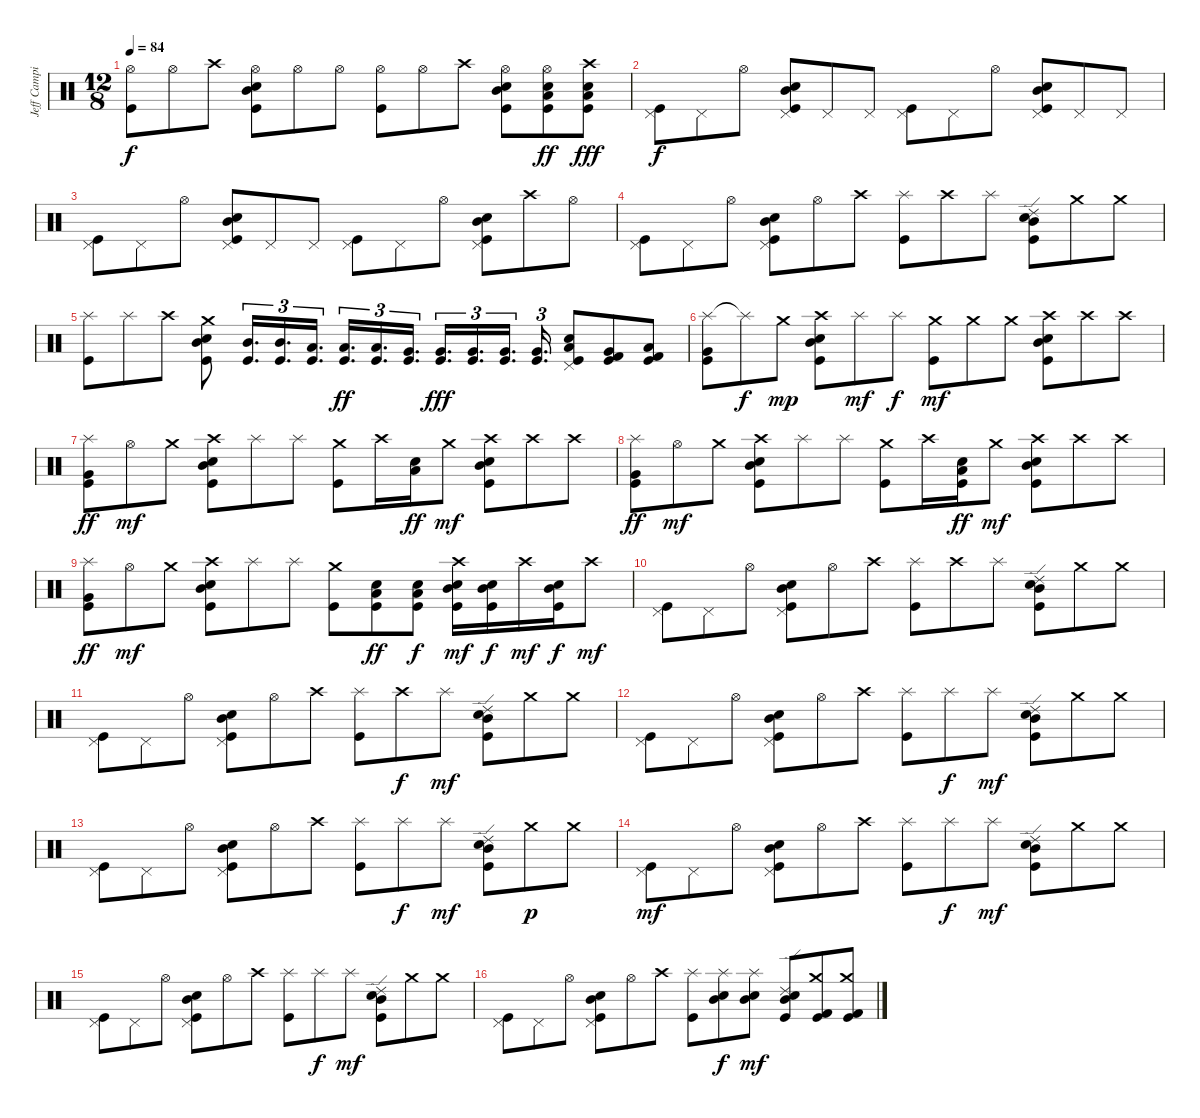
\track ("Jeff Campitelli" "Jeff Campi") {instrument percussion}
\staff {score}
\articulation defaults
\ts (12 8)
\tempo 84
\clef neutral
\ks c
("Hi-Hat (open)" "Kick (hit)").8{dy f} "Hi-Hat (open)".8 "Crash high (hit)".8 ("Hi-Hat (open)" "Snare (hit) 2" "Mid Tom (hit)" "Kick (hit)").8 "Hi-Hat (open)".8 "Hi-Hat (open)".8 ("Hi-Hat (open)" "Kick (hit)").8 "Hi-Hat (open)".8 "Crash high (hit)".8 ("Hi-Hat (open)" "Snare (hit) 2" "Mid Tom (hit)" "Kick (hit)").8 ("Hi-Hat (open)" "Snare (hit) 2" "Low Tom (hit)" "Kick (hit)").8{dy ff} ("Crash high (hit)" "Snare (hit) 2" "Low Floor Tom (hit)" "Kick (hit)").8{dy fff} |
("Pedal Hi-Hat (hit)" "Kick (hit)").8{dy f} "Pedal Hi-Hat (hit)".8 "Hi-Hat (open)".8 ("Pedal Hi-Hat (hit)" "Snare (hit) 2" "Mid Tom (hit)" "Kick (hit)").8 "Pedal Hi-Hat (hit)".8 "Pedal Hi-Hat (hit)".8 ("Pedal Hi-Hat (hit)" "Kick (hit)").8 "Pedal Hi-Hat (hit)".8 "Hi-Hat (open)".8 ("Pedal Hi-Hat (hit)" "Snare (hit) 2" "Mid Tom (hit)" "Kick (hit)").8 "Pedal Hi-Hat (hit)".8 "Pedal Hi-Hat (hit)".8 |
("Pedal Hi-Hat (hit)" "Kick (hit)").8 "Pedal Hi-Hat (hit)".8 "Hi-Hat (open)".8 ("Pedal Hi-Hat (hit)" "Snare (hit) 2" "Mid Tom (hit)" "Kick (hit)").8 "Pedal Hi-Hat (hit)".8 "Pedal Hi-Hat (hit)".8 ("Pedal Hi-Hat (hit)" "Kick (hit)").8 "Pedal Hi-Hat (hit)".8 "Hi-Hat (open)".8 ("Pedal Hi-Hat (hit)" "Snare (hit) 2" "Mid Tom (hit)" "Kick (hit)").8 "Crash high (hit)".8 "Hi-Hat (open)".8 |
("Pedal Hi-Hat (hit)" "Kick (hit)").8{volume 14} "Pedal Hi-Hat (hit)".8 "Hi-Hat (open)".8 ("Pedal Hi-Hat (hit)" "Snare (hit) 2" "Mid Tom (hit)" "Kick (hit)").8 "Hi-Hat (open)".8 "Crash high (hit)".8 ("Splash (hit)" "Kick (hit)").8 "Crash high (hit)".8 "Splash (hit)".8 ("Ride (edge) 2" "Snare (hit) 2" "Mid Tom (hit)" "Kick (hit)").8 "Crash medium (hit)".8 "Crash medium (hit)".8 |
("Splash (hit)" "Kick (hit)").8 "Splash (hit)".8 "Crash high (hit)".8 ("Crash medium (hit)" "Snare (hit) 2" "Mid Tom (hit)" "Kick (hit)").8 ("Mid Tom (hit)" "Kick (hit)").16{d tu (3 2)} ("Mid Tom (hit)" "Kick (hit)").16{d tu (3 2)} ("Low Tom (hit)" "Kick (hit)").16{d tu (3 2)} ("Low Tom (hit)" "Kick (hit)").16{d tu (3 2) dy ff} ("Low Tom (hit)" "Kick (hit)").16{d tu (3 2)} ("Very Low Tom (hit)" "Kick (hit)").16{d tu (3 2)} ("Very Low Tom (hit)" "Kick (hit)").16{d tu (3 2) dy fff} ("Very Low Tom (hit)" "Kick (hit)").16{d tu (3 2)} ("Very Low Tom (hit)" "Kick (hit)").16{d tu (3 2)} ("Very Low Tom (hit)" "Kick (hit)").16{d tu (3 2)} ("Pedal Hi-Hat (hit)" "Snare (hit) 2" "Low Tom (hit)" "Kick (hit)").8 ("Very Low Tom (hit)" "Kick (hit) 2" "Kick (hit)").8 ("Low Floor Tom (hit)" "Kick (hit) 2" "Kick (hit)").8 |
("Splash (hit)" "Very Low Tom (hit)" "Kick (hit)").8 "Splash (hit)"{t}.8{dy f} "Crash medium (hit)".8{dy mp} ("Crash high (hit)" "Snare (hit) 2" "Mid Tom (hit)" "Kick (hit)").8 "Splash (hit)".8{dy mf} "Splash (hit)".8{dy f} ("Crash medium (hit)" "Kick (hit)").8{dy mf} "Crash medium (hit)".8 "Crash medium (hit)".8 ("Crash high (hit)" "Snare (hit) 2" "Mid Tom (hit)" "Kick (hit)").8 "Crash high (hit)".8 "Crash high (hit)".8 |
("Splash (hit)" "Very Low Tom (hit)" "Kick (hit)").8{dy ff} "Hi-Hat (open)".8{dy mf} "Crash medium (hit)".8 ("Crash high (hit)" "Snare (hit) 2" "Mid Tom (hit)" "Kick (hit)").8 "Splash (hit)".8 "Splash (hit)".8 ("Crash medium (hit)" "Kick (hit)").8 "Crash high (hit)".16 ("Snare (hit) 2" "Low Tom (hit)").16{dy ff} "Crash medium (hit)".8{dy mf} ("Crash high (hit)" "Snare (hit) 2" "Mid Tom (hit)" "Kick (hit)").8 "Crash high (hit)".8 "Crash high (hit)".8 |
("Splash (hit)" "Very Low Tom (hit)" "Kick (hit)").8{dy ff} "Hi-Hat (open)".8{dy mf} "Crash medium (hit)".8 ("Crash high (hit)" "Snare (hit) 2" "Mid Tom (hit)" "Kick (hit)").8 "Splash (hit)".8 "Splash (hit)".8 ("Crash medium (hit)" "Kick (hit)").8 "Crash high (hit)".16 ("Snare (hit) 2" "Low Tom (hit)" "Kick (hit)").16{dy ff} "Crash medium (hit)".8{dy mf} ("Crash high (hit)" "Snare (hit) 2" "Mid Tom (hit)" "Kick (hit)").8 "Crash high (hit)".8 "Crash high (hit)".8 |
("Splash (hit)" "Very Low Tom (hit)" "Kick (hit)").8{dy ff} "Hi-Hat (open)".8{dy mf} "Crash medium (hit)".8 ("Crash high (hit)" "Snare (hit) 2" "Mid Tom (hit)" "Kick (hit)").8 "Splash (hit)".8 "Splash (hit)".8 ("Crash medium (hit)" "Kick (hit)").8 ("Snare (hit) 2" "Low Tom (hit)" "Kick (hit)").8{dy ff} ("Snare (hit) 2" "Low Tom (hit)" "Kick (hit)").8{dy f} ("Crash high (hit)" "Snare (hit) 2" "Mid Tom (hit)" "Kick (hit)").16{dy mf} ("Snare (hit) 2" "Mid Tom (hit)" "Kick (hit)").16{dy f} "Crash high (hit)".16{dy mf} ("Snare (hit) 2" "Mid Tom (hit)" "Kick (hit)").16{dy f} "Crash high (hit)".8{dy mf} |
("Pedal Hi-Hat (hit)" "Kick (hit)").8 "Pedal Hi-Hat (hit)".8 "Hi-Hat (open)".8 ("Pedal Hi-Hat (hit)" "Snare (hit) 2" "Mid Tom (hit)" "Kick (hit)").8 "Hi-Hat (open)".8 "Crash high (hit)".8 ("Splash (hit)" "Kick (hit)").8 "Crash high (hit)".8 "Splash (hit)".8 ("Ride (edge) 2" "Snare (hit) 2" "Mid Tom (hit)" "Kick (hit)").8 "Crash medium (hit)".8 "Crash medium (hit)".8 |
("Pedal Hi-Hat (hit)" "Kick (hit)").8 "Pedal Hi-Hat (hit)".8 "Hi-Hat (open)".8 ("Pedal Hi-Hat (hit)" "Snare (hit) 2" "Mid Tom (hit)" "Kick (hit)").8 "Hi-Hat (open)".8 "Crash high (hit)".8 ("Splash (hit)" "Kick (hit)").8 "Crash high (hit)".8{dy f} "Splash (hit)".8{dy mf} ("Ride (edge) 2" "Snare (hit) 2" "Mid Tom (hit)" "Kick (hit)").8 "Crash medium (hit)".8 "Crash medium (hit)".8 |
("Pedal Hi-Hat (hit)" "Kick (hit)").8 "Pedal Hi-Hat (hit)".8 "Hi-Hat (open)".8 ("Pedal Hi-Hat (hit)" "Snare (hit) 2" "Mid Tom (hit)" "Kick (hit)").8 "Hi-Hat (open)".8 "Crash high (hit)".8 ("Splash (hit)" "Kick (hit)").8 "Splash (hit)".8{dy f} "Splash (hit)".8{dy mf} ("Ride (edge) 2" "Snare (hit) 2" "Mid Tom (hit)" "Kick (hit)").8 "Crash medium (hit)".8 "Crash medium (hit)".8 |
("Pedal Hi-Hat (hit)" "Kick (hit)").8 "Pedal Hi-Hat (hit)".8 "Hi-Hat (open)".8 ("Pedal Hi-Hat (hit)" "Snare (hit) 2" "Mid Tom (hit)" "Kick (hit)").8 "Hi-Hat (open)".8 "Crash high (hit)".8 ("Splash (hit)" "Kick (hit)").8 "Splash (hit)".8{dy f} "Splash (hit)".8{dy mf} ("Ride (edge) 2" "Snare (hit) 2" "Mid Tom (hit)" "Kick (hit)").8 "Crash medium (hit)".8{dy p} "Crash medium (hit)".8 |
("Pedal Hi-Hat (hit)" "Kick (hit)").8{dy mf} "Pedal Hi-Hat (hit)".8 "Hi-Hat (open)".8 ("Pedal Hi-Hat (hit)" "Snare (hit) 2" "Mid Tom (hit)" "Kick (hit)").8 "Hi-Hat (open)".8 "Crash high (hit)".8 ("Splash (hit)" "Kick (hit)").8 "Splash (hit)".8{dy f} "Splash (hit)".8{dy mf} ("Ride (edge) 2" "Snare (hit) 2" "Mid Tom (hit)" "Kick (hit)").8 "Crash medium (hit)".8 "Crash medium (hit)".8 |
("Pedal Hi-Hat (hit)" "Kick (hit)").8 "Pedal Hi-Hat (hit)".8 "Hi-Hat (open)".8 ("Pedal Hi-Hat (hit)" "Snare (hit) 2" "Mid Tom (hit)" "Kick (hit)").8 "Hi-Hat (open)".8 "Crash high (hit)".8 ("Splash (hit)" "Kick (hit)").8 "Splash (hit)".8{dy f} "Splash (hit)".8{dy mf} ("Ride (edge) 2" "Snare (hit) 2" "Mid Tom (hit)" "Kick (hit)").8 "Crash medium (hit)".8 "Crash medium (hit)".8 |
("Pedal Hi-Hat (hit)" "Kick (hit)").8 "Pedal Hi-Hat (hit)".8 "Hi-Hat (open)".8 ("Pedal Hi-Hat (hit)" "Snare (hit) 2" "Mid Tom (hit)" "Kick (hit)").8 "Hi-Hat (open)".8 "Crash high (hit)".8 ("Splash (hit)" "Kick (hit)").8 ("Splash (hit)" "Snare (hit) 2" "Mid Tom (hit)").8{dy f} ("Splash (hit)" "Snare (hit) 2" "Mid Tom (hit)").8{dy mf} ("Ride (edge) 2" "Snare (hit) 2" "Mid Tom (hit)" "Kick (hit)").8 ("Crash medium (hit)" "Kick (hit) 2" "Kick (hit)").8 ("Crash medium (hit)" "Kick (hit) 2" "Kick (hit)").8
